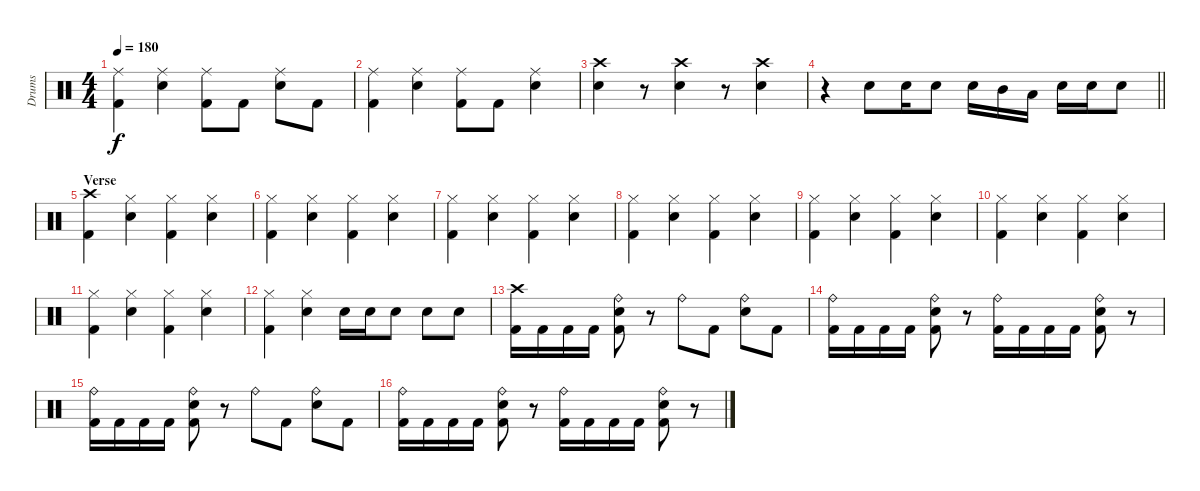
\track ("Drums " "Drums ") {instrument percussion}
\staff {score}
\articulation defaults
\ts (4 4)
\tempo 180
\clef neutral
\ks c
("Kick (hit) 2" "Ride (middle)").4{dy f} ("Ride (middle)" "Electric Snare (hit)").4 ("Kick (hit) 2" "Ride (middle)").8 "Kick (hit) 2".8 ("Ride (middle)" "Electric Snare (hit)").8 "Kick (hit) 2".8 |
("Kick (hit) 2" "Ride (middle)").4 ("Ride (middle)" "Electric Snare (hit)").4 ("Kick (hit) 2" "Ride (middle)").8 "Kick (hit) 2".8 ("Ride (middle)" "Electric Snare (hit)").4 |
("Crash high (hit)" "Electric Snare (hit)").4 r.8 ("Crash high (hit)" "Electric Snare (hit)").4 r.8 ("Crash high (hit)" "Electric Snare (hit)").4 |
\barLineRight lightlight
r.4 "Electric Snare (hit)".8 "Electric Snare (hit)".16 "Electric Snare (hit)".8 "Electric Snare (hit)".16 "Mid Tom (hit)".16 "Low Tom (hit)".16 "Electric Snare (hit)".16 "Electric Snare (hit)".16 "Electric Snare (hit)".8 |
\section ("" "Verse")
("Kick (hit) 2" "Crash high (hit)").4 ("Hi-Hat (closed)" "Electric Snare (hit)").4 ("Kick (hit) 2" "Hi-Hat (closed)").4 ("Hi-Hat (closed)" "Electric Snare (hit)").4 |
("Kick (hit) 2" "Hi-Hat (closed)").4 ("Hi-Hat (closed)" "Electric Snare (hit)").4 ("Kick (hit) 2" "Hi-Hat (closed)").4 ("Hi-Hat (closed)" "Electric Snare (hit)").4 |
("Kick (hit) 2" "Hi-Hat (closed)").4 ("Hi-Hat (closed)" "Electric Snare (hit)").4 ("Kick (hit) 2" "Hi-Hat (closed)").4 ("Hi-Hat (closed)" "Electric Snare (hit)").4 |
("Kick (hit) 2" "Hi-Hat (closed)").4 ("Hi-Hat (closed)" "Electric Snare (hit)").4 ("Kick (hit) 2" "Hi-Hat (closed)").4 ("Hi-Hat (closed)" "Electric Snare (hit)").4 |
("Kick (hit) 2" "Hi-Hat (closed)").4 ("Hi-Hat (closed)" "Electric Snare (hit)").4 ("Kick (hit) 2" "Hi-Hat (closed)").4 ("Hi-Hat (closed)" "Electric Snare (hit)").4 |
("Kick (hit) 2" "Hi-Hat (closed)").4 ("Hi-Hat (closed)" "Electric Snare (hit)").4 ("Kick (hit) 2" "Hi-Hat (closed)").4 ("Hi-Hat (closed)" "Electric Snare (hit)").4 |
("Kick (hit) 2" "Hi-Hat (closed)").4 ("Hi-Hat (closed)" "Electric Snare (hit)").4 ("Kick (hit) 2" "Hi-Hat (closed)").4 ("Hi-Hat (closed)" "Electric Snare (hit)").4 |
("Kick (hit) 2" "Hi-Hat (closed)").4 ("Hi-Hat (closed)" "Electric Snare (hit)").4 "Electric Snare (hit)".16 "Electric Snare (hit)".16 "Electric Snare (hit)".8 "Electric Snare (hit)".8 "Electric Snare (hit)".8 |
("Kick (hit) 2" "Crash high (hit)").16 "Kick (hit) 2".16 "Kick (hit) 2".16 "Kick (hit) 2".16 ("Kick (hit) 2" "Ride (bell)" "Electric Snare (hit)").8 r.8 "Ride (bell)".8 "Kick (hit) 2".8 ("Ride (bell)" "Electric Snare (hit)").8 "Kick (hit) 2".8 |
("Kick (hit) 2" "Ride (bell)").16 "Kick (hit) 2".16 "Kick (hit) 2".16 "Kick (hit) 2".16 ("Kick (hit) 2" "Ride (bell)" "Electric Snare (hit)").8 r.8 ("Kick (hit) 2" "Ride (bell)").16 "Kick (hit) 2".16 "Kick (hit) 2".16 "Kick (hit) 2".16 ("Kick (hit) 2" "Ride (bell)" "Electric Snare (hit)").8 r.8 |
("Kick (hit) 2" "Ride (bell)").16 "Kick (hit) 2".16 "Kick (hit) 2".16 "Kick (hit) 2".16 ("Kick (hit) 2" "Ride (bell)" "Electric Snare (hit)").8 r.8 "Ride (bell)".8 "Kick (hit) 2".8 ("Ride (bell)" "Electric Snare (hit)").8 "Kick (hit) 2".8 |
("Kick (hit) 2" "Ride (bell)").16 "Kick (hit) 2".16 "Kick (hit) 2".16 "Kick (hit) 2".16 ("Kick (hit) 2" "Ride (bell)" "Electric Snare (hit)").8 r.8 ("Kick (hit) 2" "Ride (bell)").16 "Kick (hit) 2".16 "Kick (hit) 2".16 "Kick (hit) 2".16 ("Kick (hit) 2" "Ride (bell)" "Electric Snare (hit)").8 r.8
